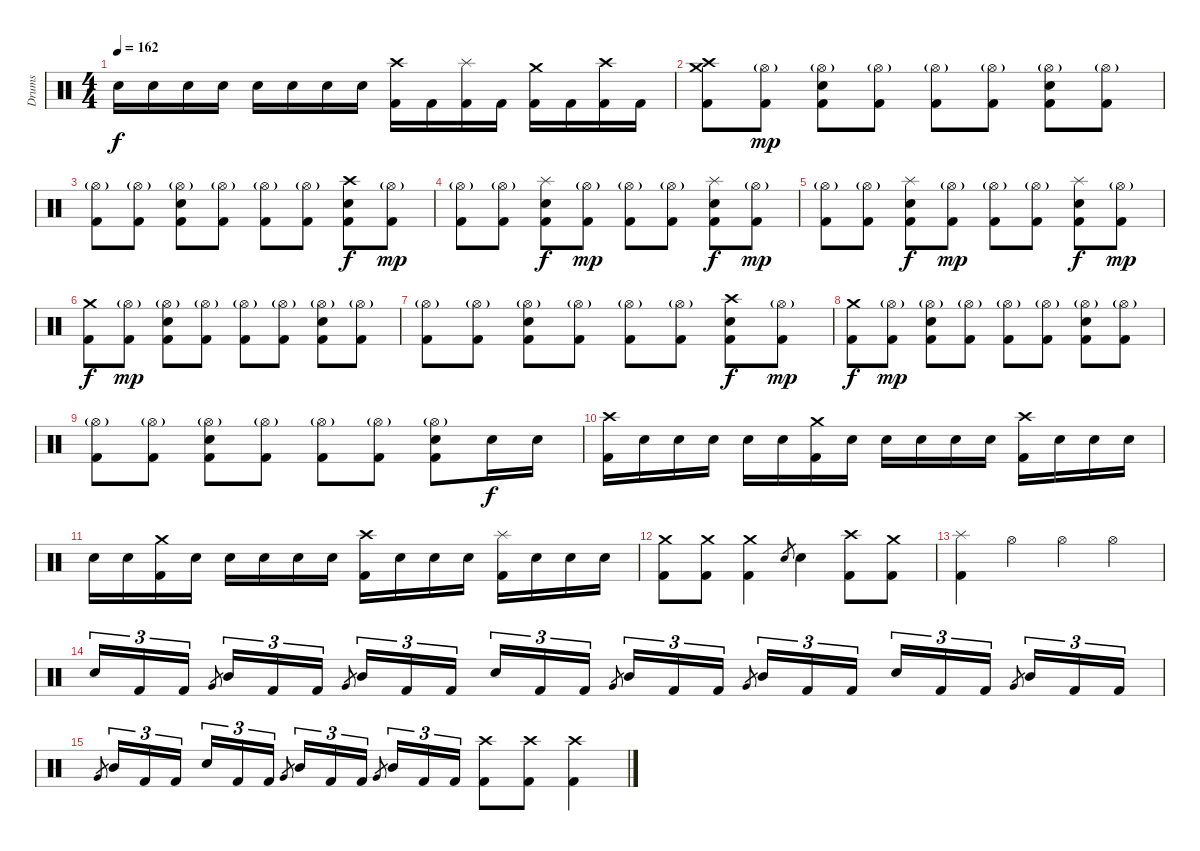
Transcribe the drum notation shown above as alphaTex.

\track ("Drums" "Drums") {instrument percussion}
\staff {score}
\articulation defaults
\ts (4 4)
\tempo 162
\clef neutral
\ks c "Snare (hit) 2".16{dy f} "Snare (hit) 2".16 "Snare (hit) 2".16 "Snare (hit) 2".16 "Snare (hit) 2".16 "Snare (hit) 2".16 "Snare (hit) 2".16 "Snare (hit) 2".16
("Crash high (hit)" "Kick (hit) 2").16 "Kick (hit) 2".16 ("Splash (hit)" "Kick (hit) 2").16 "Kick (hit) 2".16 ("Crash medium (hit)" "Kick (hit) 2").16 "Kick (hit) 2".16 ("Crash high (hit)" "Kick (hit) 2").16 "Kick (hit) 2".16 |
("Crash medium (hit)" "Crash high (hit)" "Kick (hit) 2").8 ("Hi-Hat (open)"{g} "Kick (hit) 2").8{dy mp} ("Hi-Hat (open)"{g} "Snare (hit) 2" "Kick (hit) 2").8 ("Hi-Hat (open)"{g} "Kick (hit) 2").8 ("Hi-Hat (open)"{g} "Kick (hit) 2").8 ("Hi-Hat (open)"{g} "Kick (hit) 2").8 ("Hi-Hat (open)"{g} "Snare (hit) 2" "Kick (hit) 2").8 ("Hi-Hat (open)"{g} "Kick (hit) 2").8 |
("Hi-Hat (open)"{g} "Kick (hit) 2").8 ("Hi-Hat (open)"{g} "Kick (hit) 2").8 ("Hi-Hat (open)"{g} "Snare (hit) 2" "Kick (hit) 2").8 ("Hi-Hat (open)"{g} "Kick (hit) 2").8 ("Hi-Hat (open)"{g} "Kick (hit) 2").8 ("Hi-Hat (open)"{g} "Kick (hit) 2").8 ("Crash high (hit)" "Snare (hit) 2" "Kick (hit) 2").8{dy f} ("Hi-Hat (open)"{g} "Kick (hit) 2").8{dy mp} |
("Hi-Hat (open)"{g} "Kick (hit) 2").8 ("Hi-Hat (open)"{g} "Kick (hit) 2").8 ("Splash (hit)" "Snare (hit) 2" "Kick (hit) 2").8{dy f} ("Hi-Hat (open)"{g} "Kick (hit) 2").8{dy mp} ("Hi-Hat (open)"{g} "Kick (hit) 2").8 ("Hi-Hat (open)"{g} "Kick (hit) 2").8 ("Splash (hit)" "Snare (hit) 2" "Kick (hit) 2").8{dy f} ("Hi-Hat (open)"{g} "Kick (hit) 2").8{dy mp} |
("Hi-Hat (open)"{g} "Kick (hit) 2").8 ("Hi-Hat (open)"{g} "Kick (hit) 2").8 ("Splash (hit)" "Snare (hit) 2" "Kick (hit) 2").8{dy f} ("Hi-Hat (open)"{g} "Kick (hit) 2").8{dy mp} ("Hi-Hat (open)"{g} "Kick (hit) 2").8 ("Hi-Hat (open)"{g} "Kick (hit) 2").8 ("Splash (hit)" "Snare (hit) 2" "Kick (hit) 2").8{dy f} ("Hi-Hat (open)"{g} "Kick (hit) 2").8{dy mp} |
("Crash medium (hit)" "Kick (hit) 2").8{dy f} ("Hi-Hat (open)"{g} "Kick (hit) 2").8{dy mp} ("Hi-Hat (open)"{g} "Snare (hit) 2" "Kick (hit) 2").8 ("Hi-Hat (open)"{g} "Kick (hit) 2").8 ("Hi-Hat (open)"{g} "Kick (hit) 2").8 ("Hi-Hat (open)"{g} "Kick (hit) 2").8 ("Hi-Hat (open)"{g} "Snare (hit) 2" "Kick (hit) 2").8 ("Hi-Hat (open)"{g} "Kick (hit) 2").8 |
("Hi-Hat (open)"{g} "Kick (hit) 2").8 ("Hi-Hat (open)"{g} "Kick (hit) 2").8 ("Hi-Hat (open)"{g} "Snare (hit) 2" "Kick (hit) 2").8 ("Hi-Hat (open)"{g} "Kick (hit) 2").8 ("Hi-Hat (open)"{g} "Kick (hit) 2").8 ("Hi-Hat (open)"{g} "Kick (hit) 2").8 ("Crash high (hit)" "Snare (hit) 2" "Kick (hit) 2").8{dy f} ("Hi-Hat (open)"{g} "Kick (hit) 2").8{dy mp} |
("Crash medium (hit)" "Kick (hit) 2").8{dy f} ("Hi-Hat (open)"{g} "Kick (hit) 2").8{dy mp} ("Hi-Hat (open)"{g} "Snare (hit) 2" "Kick (hit) 2").8 ("Hi-Hat (open)"{g} "Kick (hit) 2").8 ("Hi-Hat (open)"{g} "Kick (hit) 2").8 ("Hi-Hat (open)"{g} "Kick (hit) 2").8 ("Hi-Hat (open)"{g} "Snare (hit) 2" "Kick (hit) 2").8 ("Hi-Hat (open)"{g} "Kick (hit) 2").8 |
("Hi-Hat (open)"{g} "Kick (hit) 2").8 ("Hi-Hat (open)"{g} "Kick (hit) 2").8 ("Hi-Hat (open)"{g} "Snare (hit) 2" "Kick (hit) 2").8 ("Hi-Hat (open)"{g} "Kick (hit) 2").8 ("Hi-Hat (open)"{g} "Kick (hit) 2").8 ("Hi-Hat (open)"{g} "Kick (hit) 2").8 ("Hi-Hat (open)"{g} "Snare (hit) 2" "Kick (hit) 2").8 "Snare (hit) 2".16{dy f} "Snare (hit) 2".16 |
("Crash high (hit)" "Kick (hit) 2").16 "Snare (hit) 2".16 "Snare (hit) 2".16 "Snare (hit) 2".16 "Snare (hit) 2".16 "Snare (hit) 2".16 ("Crash medium (hit)" "Kick (hit) 2").16 "Snare (hit) 2".16 "Snare (hit) 2".16 "Snare (hit) 2".16 "Snare (hit) 2".16 "Snare (hit) 2".16 ("Crash high (hit)" "Kick (hit) 2").16 "Snare (hit) 2".16 "Snare (hit) 2".16 "Snare (hit) 2".16 |
"Snare (hit) 2".16 "Snare (hit) 2".16 ("Crash medium (hit)" "Kick (hit) 2").16 "Snare (hit) 2".16 "Snare (hit) 2".16 "Snare (hit) 2".16 "Snare (hit) 2".16 "Snare (hit) 2".16 ("Crash high (hit)" "Kick (hit) 2").16 "Snare (hit) 2".16 "Snare (hit) 2".16 "Snare (hit) 2".16 ("Splash (hit)" "Kick (hit) 2").16 "Snare (hit) 2".16 "Snare (hit) 2".16 "Snare (hit) 2".16 |
("Crash medium (hit)" "Kick (hit) 2").8 ("Crash medium (hit)" "Kick (hit) 2").8 ("Crash medium (hit)" "Kick (hit) 2").4 "Snare (hit) 2".8{gr} "Snare (hit) 2".4 ("Crash high (hit)" "Kick (hit) 2").8 ("Crash medium (hit)" "Kick (hit) 2").8 |
("Splash (hit)" "Kick (hit) 2").4 "Hi-Hat (open)".4 "Hi-Hat (open)".4 "Hi-Hat (open)".4 |
"Snare (hit) 2".16{tu (3 2)} "Kick (hit) 2".16{tu (3 2)} "Kick (hit) 2".16{tu (3 2)} "Very Low Tom (hit)".8{gr} "Mid Tom (hit)".16{tu (3 2)} "Kick (hit) 2".16{tu (3 2)} "Kick (hit) 2".16{tu (3 2)} "Very Low Tom (hit)".8{gr} "Mid Tom (hit)".16{tu (3 2)} "Kick (hit) 2".16{tu (3 2)} "Kick (hit) 2".16{tu (3 2)} "Snare (hit) 2".16{tu (3 2)} "Kick (hit) 2".16{tu (3 2)} "Kick (hit) 2".16{tu (3 2)} "Very Low Tom (hit)".8{gr} "Mid Tom (hit)".16{tu (3 2)} "Kick (hit) 2".16{tu (3 2)} "Kick (hit) 2".16{tu (3 2)} "Very Low Tom (hit)".8{gr} "Mid Tom (hit)".16{tu (3 2)} "Kick (hit) 2".16{tu (3 2)} "Kick (hit) 2".16{tu (3 2)} "Snare (hit) 2".16{tu (3 2)} "Kick (hit) 2".16{tu (3 2)} "Kick (hit) 2".16{tu (3 2)} "Very Low Tom (hit)".8{gr} "Mid Tom (hit)".16{tu (3 2)} "Kick (hit) 2".16{tu (3 2)} "Kick (hit) 2".16{tu (3 2)} |
"Very Low Tom (hit)".8{gr} "Mid Tom (hit)".16{tu (3 2)} "Kick (hit) 2".16{tu (3 2)} "Kick (hit) 2".16{tu (3 2)} "Snare (hit) 2".16{tu (3 2)} "Kick (hit) 2".16{tu (3 2)} "Kick (hit) 2".16{tu (3 2)} "Very Low Tom (hit)".8{gr} "Mid Tom (hit)".16{tu (3 2)} "Kick (hit) 2".16{tu (3 2)} "Kick (hit) 2".16{tu (3 2)} "Very Low Tom (hit)".8{gr} "Mid Tom (hit)".16{tu (3 2)} "Kick (hit) 2".16{tu (3 2)} "Kick (hit) 2".16{tu (3 2)} ("Crash high (hit)" "Kick (hit) 2").8 ("Crash high (hit)" "Kick (hit) 2").8 ("Crash high (hit)" "Kick (hit) 2").4
